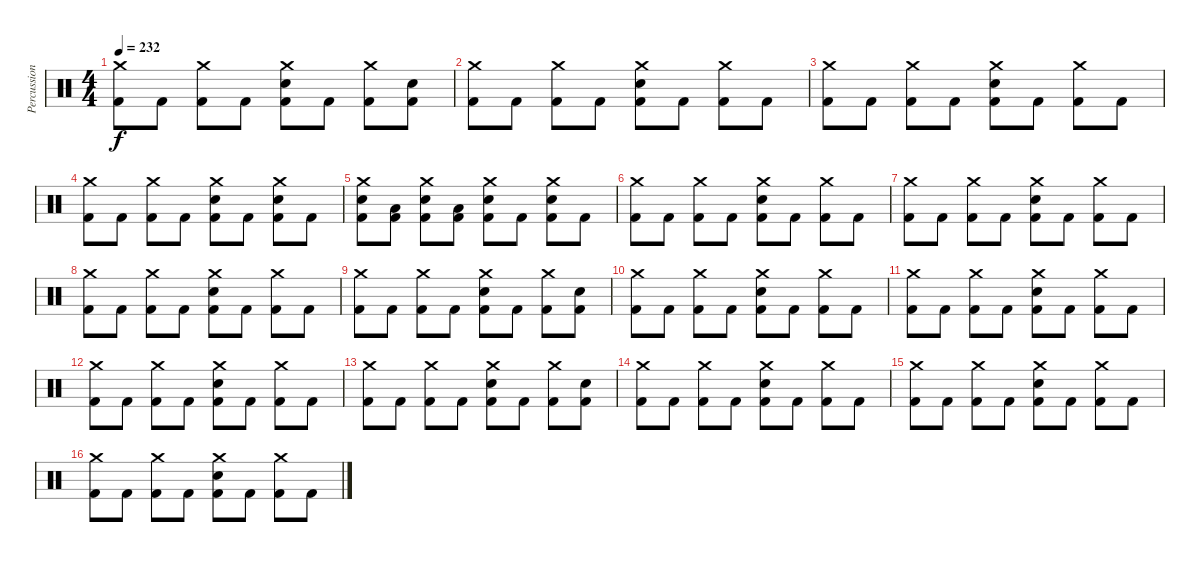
\track ("Percussions" "Percussion") {instrument percussion}
\staff {score}
\articulation defaults
\ts (4 4)
\tempo 232
\clef neutral
\ks c
("Crash medium (hit)" "Kick (hit) 2").8{dy f} "Kick (hit) 2".8 ("Crash medium (hit)" "Kick (hit) 2").8 "Kick (hit) 2".8 ("Crash medium (hit)" "Electric Snare (hit)" "Kick (hit) 2").8 "Kick (hit) 2".8 ("Crash medium (hit)" "Kick (hit) 2").8 ("Electric Snare (hit)" "Kick (hit) 2").8 |
("Crash medium (hit)" "Kick (hit) 2").8 "Kick (hit) 2".8 ("Crash medium (hit)" "Kick (hit) 2").8 "Kick (hit) 2".8 ("Crash medium (hit)" "Electric Snare (hit)" "Kick (hit) 2").8 "Kick (hit) 2".8 ("Crash medium (hit)" "Kick (hit) 2").8 "Kick (hit) 2".8 |
("Crash medium (hit)" "Kick (hit) 2").8 "Kick (hit) 2".8 ("Crash medium (hit)" "Kick (hit) 2").8 "Kick (hit) 2".8 ("Crash medium (hit)" "Electric Snare (hit)" "Kick (hit) 2").8 "Kick (hit) 2".8 ("Crash medium (hit)" "Kick (hit) 2").8 "Kick (hit) 2".8 |
("Crash medium (hit)" "Kick (hit) 2").8 "Kick (hit) 2".8 ("Crash medium (hit)" "Kick (hit) 2").8 "Kick (hit) 2".8 ("Crash medium (hit)" "Electric Snare (hit)" "Kick (hit) 2").8 "Kick (hit) 2".8 ("Crash medium (hit)" "Electric Snare (hit)" "Kick (hit) 2").8 "Kick (hit) 2".8 |
("Crash medium (hit)" "Electric Snare (hit)" "Kick (hit) 2").8 ("Low Tom (hit)" "Kick (hit) 2").8 ("Crash medium (hit)" "Electric Snare (hit)" "Kick (hit) 2").8 ("Low Floor Tom (hit)" "Kick (hit) 2").8 ("Crash medium (hit)" "Electric Snare (hit)" "Kick (hit) 2").8 "Kick (hit) 2".8 ("Crash medium (hit)" "Electric Snare (hit)" "Kick (hit) 2").8 "Kick (hit) 2".8 |
("Crash medium (hit)" "Kick (hit) 2").8 "Kick (hit) 2".8 ("Crash medium (hit)" "Kick (hit) 2").8 "Kick (hit) 2".8 ("Crash medium (hit)" "Electric Snare (hit)" "Kick (hit) 2").8 "Kick (hit) 2".8 ("Crash medium (hit)" "Kick (hit) 2").8 "Kick (hit) 2".8 |
("Crash medium (hit)" "Kick (hit) 2").8 "Kick (hit) 2".8 ("Crash medium (hit)" "Kick (hit) 2").8 "Kick (hit) 2".8 ("Crash medium (hit)" "Electric Snare (hit)" "Kick (hit) 2").8 "Kick (hit) 2".8 ("Crash medium (hit)" "Kick (hit) 2").8 "Kick (hit) 2".8 |
("Crash medium (hit)" "Kick (hit) 2").8 "Kick (hit) 2".8 ("Crash medium (hit)" "Kick (hit) 2").8 "Kick (hit) 2".8 ("Crash medium (hit)" "Electric Snare (hit)" "Kick (hit) 2").8 "Kick (hit) 2".8 ("Crash medium (hit)" "Kick (hit) 2").8 "Kick (hit) 2".8 |
("Crash medium (hit)" "Kick (hit) 2").8 "Kick (hit) 2".8 ("Crash medium (hit)" "Kick (hit) 2").8 "Kick (hit) 2".8 ("Crash medium (hit)" "Electric Snare (hit)" "Kick (hit) 2").8 "Kick (hit) 2".8 ("Crash medium (hit)" "Kick (hit) 2").8 ("Electric Snare (hit)" "Kick (hit) 2").8 |
("Crash medium (hit)" "Kick (hit) 2").8 "Kick (hit) 2".8 ("Crash medium (hit)" "Kick (hit) 2").8 "Kick (hit) 2".8 ("Crash medium (hit)" "Electric Snare (hit)" "Kick (hit) 2").8 "Kick (hit) 2".8 ("Crash medium (hit)" "Kick (hit) 2").8 "Kick (hit) 2".8 |
("Crash medium (hit)" "Kick (hit) 2").8 "Kick (hit) 2".8 ("Crash medium (hit)" "Kick (hit) 2").8 "Kick (hit) 2".8 ("Crash medium (hit)" "Electric Snare (hit)" "Kick (hit) 2").8 "Kick (hit) 2".8 ("Crash medium (hit)" "Kick (hit) 2").8 "Kick (hit) 2".8 |
("Crash medium (hit)" "Kick (hit) 2").8 "Kick (hit) 2".8 ("Crash medium (hit)" "Kick (hit) 2").8 "Kick (hit) 2".8 ("Crash medium (hit)" "Electric Snare (hit)" "Kick (hit) 2").8 "Kick (hit) 2".8 ("Crash medium (hit)" "Kick (hit) 2").8 "Kick (hit) 2".8 |
("Crash medium (hit)" "Kick (hit) 2").8 "Kick (hit) 2".8 ("Crash medium (hit)" "Kick (hit) 2").8 "Kick (hit) 2".8 ("Crash medium (hit)" "Electric Snare (hit)" "Kick (hit) 2").8 "Kick (hit) 2".8 ("Crash medium (hit)" "Kick (hit) 2").8 ("Electric Snare (hit)" "Kick (hit) 2").8 |
("Crash medium (hit)" "Kick (hit) 2").8 "Kick (hit) 2".8 ("Crash medium (hit)" "Kick (hit) 2").8 "Kick (hit) 2".8 ("Crash medium (hit)" "Electric Snare (hit)" "Kick (hit) 2").8 "Kick (hit) 2".8 ("Crash medium (hit)" "Kick (hit) 2").8 "Kick (hit) 2".8 |
("Crash medium (hit)" "Kick (hit) 2").8 "Kick (hit) 2".8 ("Crash medium (hit)" "Kick (hit) 2").8 "Kick (hit) 2".8 ("Crash medium (hit)" "Electric Snare (hit)" "Kick (hit) 2").8 "Kick (hit) 2".8 ("Crash medium (hit)" "Kick (hit) 2").8 "Kick (hit) 2".8 |
("Crash medium (hit)" "Kick (hit) 2").8 "Kick (hit) 2".8 ("Crash medium (hit)" "Kick (hit) 2").8 "Kick (hit) 2".8 ("Crash medium (hit)" "Electric Snare (hit)" "Kick (hit) 2").8 "Kick (hit) 2".8 ("Crash medium (hit)" "Kick (hit) 2").8 "Kick (hit) 2".8
